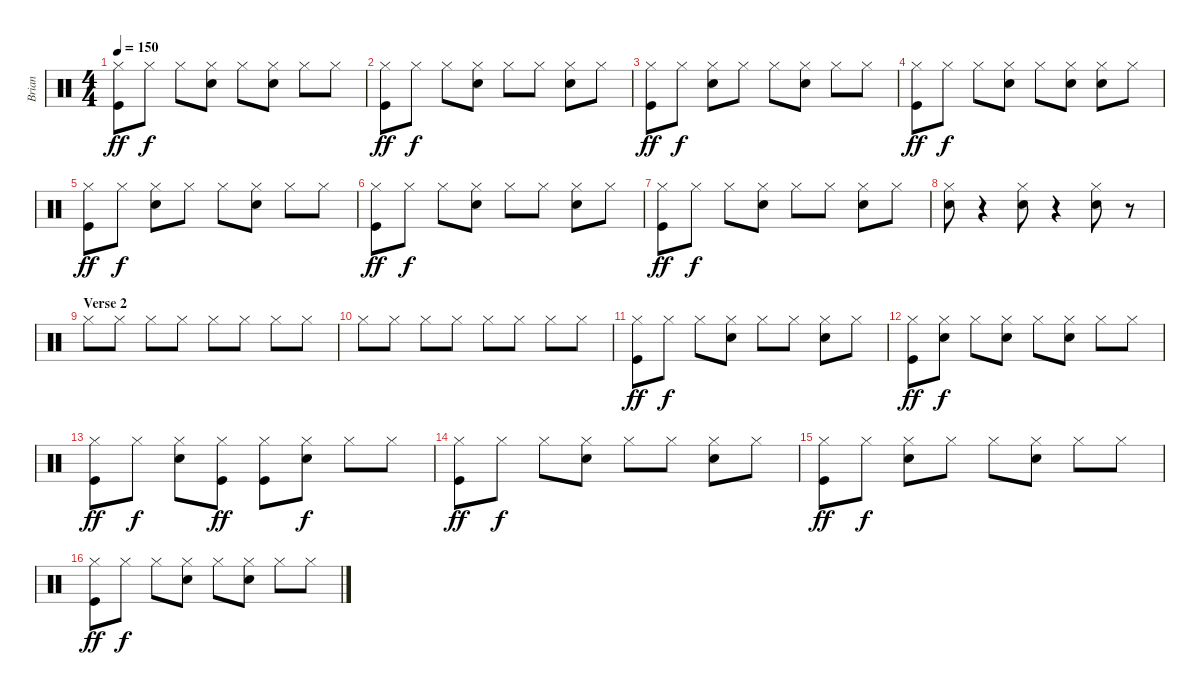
\track ("Brian" "Brian") {instrument percussion}
\staff {score}
\articulation defaults
\ts (4 4)
\tempo 150
\clef neutral
\ks c
("Hi-Hat (closed)" "Kick (hit)").8{dy ff} "Hi-Hat (closed)".8{dy f} "Hi-Hat (closed)".8 ("Hi-Hat (closed)" "Snare (hit) 2").8 "Hi-Hat (closed)".8 ("Hi-Hat (closed)" "Snare (hit) 2").8 "Hi-Hat (closed)".8 "Hi-Hat (closed)".8 |
("Hi-Hat (closed)" "Kick (hit)").8{dy ff} "Hi-Hat (closed)".8{dy f} "Hi-Hat (closed)".8 ("Hi-Hat (closed)" "Snare (hit) 2").8 "Hi-Hat (closed)".8 "Hi-Hat (closed)".8 ("Hi-Hat (closed)" "Snare (hit) 2").8 "Hi-Hat (closed)".8 |
("Hi-Hat (closed)" "Kick (hit)").8{dy ff} "Hi-Hat (closed)".8{dy f} ("Hi-Hat (closed)" "Snare (hit) 2").8 "Hi-Hat (closed)".8 "Hi-Hat (closed)".8 ("Hi-Hat (closed)" "Snare (hit) 2").8 "Hi-Hat (closed)".8 "Hi-Hat (closed)".8 |
("Hi-Hat (closed)" "Kick (hit)").8{dy ff} "Hi-Hat (closed)".8{dy f} "Hi-Hat (closed)".8 ("Hi-Hat (closed)" "Snare (hit) 2").8 "Hi-Hat (closed)".8 ("Hi-Hat (closed)" "Snare (hit) 2").8 ("Hi-Hat (closed)" "Snare (hit) 2").8 "Hi-Hat (closed)".8 |
("Hi-Hat (closed)" "Kick (hit)").8{dy ff} "Hi-Hat (closed)".8{dy f} ("Hi-Hat (closed)" "Snare (hit) 2").8 "Hi-Hat (closed)".8 "Hi-Hat (closed)".8 ("Hi-Hat (closed)" "Snare (hit) 2").8 "Hi-Hat (closed)".8 "Hi-Hat (closed)".8 |
("Hi-Hat (closed)" "Kick (hit)").8{dy ff} "Hi-Hat (closed)".8{dy f} "Hi-Hat (closed)".8 ("Hi-Hat (closed)" "Snare (hit) 2").8 "Hi-Hat (closed)".8 "Hi-Hat (closed)".8 ("Hi-Hat (closed)" "Snare (hit) 2").8 "Hi-Hat (closed)".8 |
("Hi-Hat (closed)" "Kick (hit)").8{dy ff} "Hi-Hat (closed)".8{dy f} "Hi-Hat (closed)".8 ("Hi-Hat (closed)" "Snare (hit) 2").8 "Hi-Hat (closed)".8 "Hi-Hat (closed)".8 ("Hi-Hat (closed)" "Snare (hit) 2").8 "Hi-Hat (closed)".8 |
("Hi-Hat (closed)" "Snare (hit) 2").8 r.4 ("Hi-Hat (closed)" "Snare (hit) 2").8 r.4 ("Hi-Hat (closed)" "Snare (hit) 2").8 r.8 |
\section ("" "Verse 2")
"Hi-Hat (closed)".8 "Hi-Hat (closed)".8 "Hi-Hat (closed)".8 "Hi-Hat (closed)".8 "Hi-Hat (closed)".8 "Hi-Hat (closed)".8 "Hi-Hat (closed)".8 "Hi-Hat (closed)".8 |
"Hi-Hat (closed)".8 "Hi-Hat (closed)".8 "Hi-Hat (closed)".8 "Hi-Hat (closed)".8 "Hi-Hat (closed)".8 "Hi-Hat (closed)".8 "Hi-Hat (closed)".8 "Hi-Hat (closed)".8 |
("Hi-Hat (closed)" "Kick (hit)").8{dy ff} "Hi-Hat (closed)".8{dy f} "Hi-Hat (closed)".8 ("Hi-Hat (closed)" "Snare (hit) 2").8 "Hi-Hat (closed)".8 "Hi-Hat (closed)".8 ("Hi-Hat (closed)" "Snare (hit) 2").8 "Hi-Hat (closed)".8 |
("Hi-Hat (closed)" "Kick (hit)").8{dy ff} ("Hi-Hat (closed)" "Snare (hit) 2").8{dy f} "Hi-Hat (closed)".8 ("Hi-Hat (closed)" "Snare (hit) 2").8 "Hi-Hat (closed)".8 ("Hi-Hat (closed)" "Snare (hit) 2").8 "Hi-Hat (closed)".8 "Hi-Hat (closed)".8 |
("Hi-Hat (closed)" "Kick (hit)").8{dy ff} "Hi-Hat (closed)".8{dy f} ("Hi-Hat (closed)" "Snare (hit) 2").8 ("Hi-Hat (closed)" "Kick (hit)").8{dy ff} ("Hi-Hat (closed)" "Kick (hit)").8 ("Hi-Hat (closed)" "Snare (hit) 2").8{dy f} "Hi-Hat (closed)".8 "Hi-Hat (closed)".8 |
("Hi-Hat (closed)" "Kick (hit)").8{dy ff} "Hi-Hat (closed)".8{dy f} "Hi-Hat (closed)".8 ("Hi-Hat (closed)" "Snare (hit) 2").8 "Hi-Hat (closed)".8 "Hi-Hat (closed)".8 ("Hi-Hat (closed)" "Snare (hit) 2").8 "Hi-Hat (closed)".8 |
("Hi-Hat (closed)" "Kick (hit)").8{dy ff} "Hi-Hat (closed)".8{dy f} ("Hi-Hat (closed)" "Snare (hit) 2").8 "Hi-Hat (closed)".8 "Hi-Hat (closed)".8 ("Hi-Hat (closed)" "Snare (hit) 2").8 "Hi-Hat (closed)".8 "Hi-Hat (closed)".8 |
("Hi-Hat (closed)" "Kick (hit)").8{dy ff} "Hi-Hat (closed)".8{dy f} "Hi-Hat (closed)".8 ("Hi-Hat (closed)" "Snare (hit) 2").8 "Hi-Hat (closed)".8 ("Hi-Hat (closed)" "Snare (hit) 2").8 "Hi-Hat (closed)".8 "Hi-Hat (closed)".8
